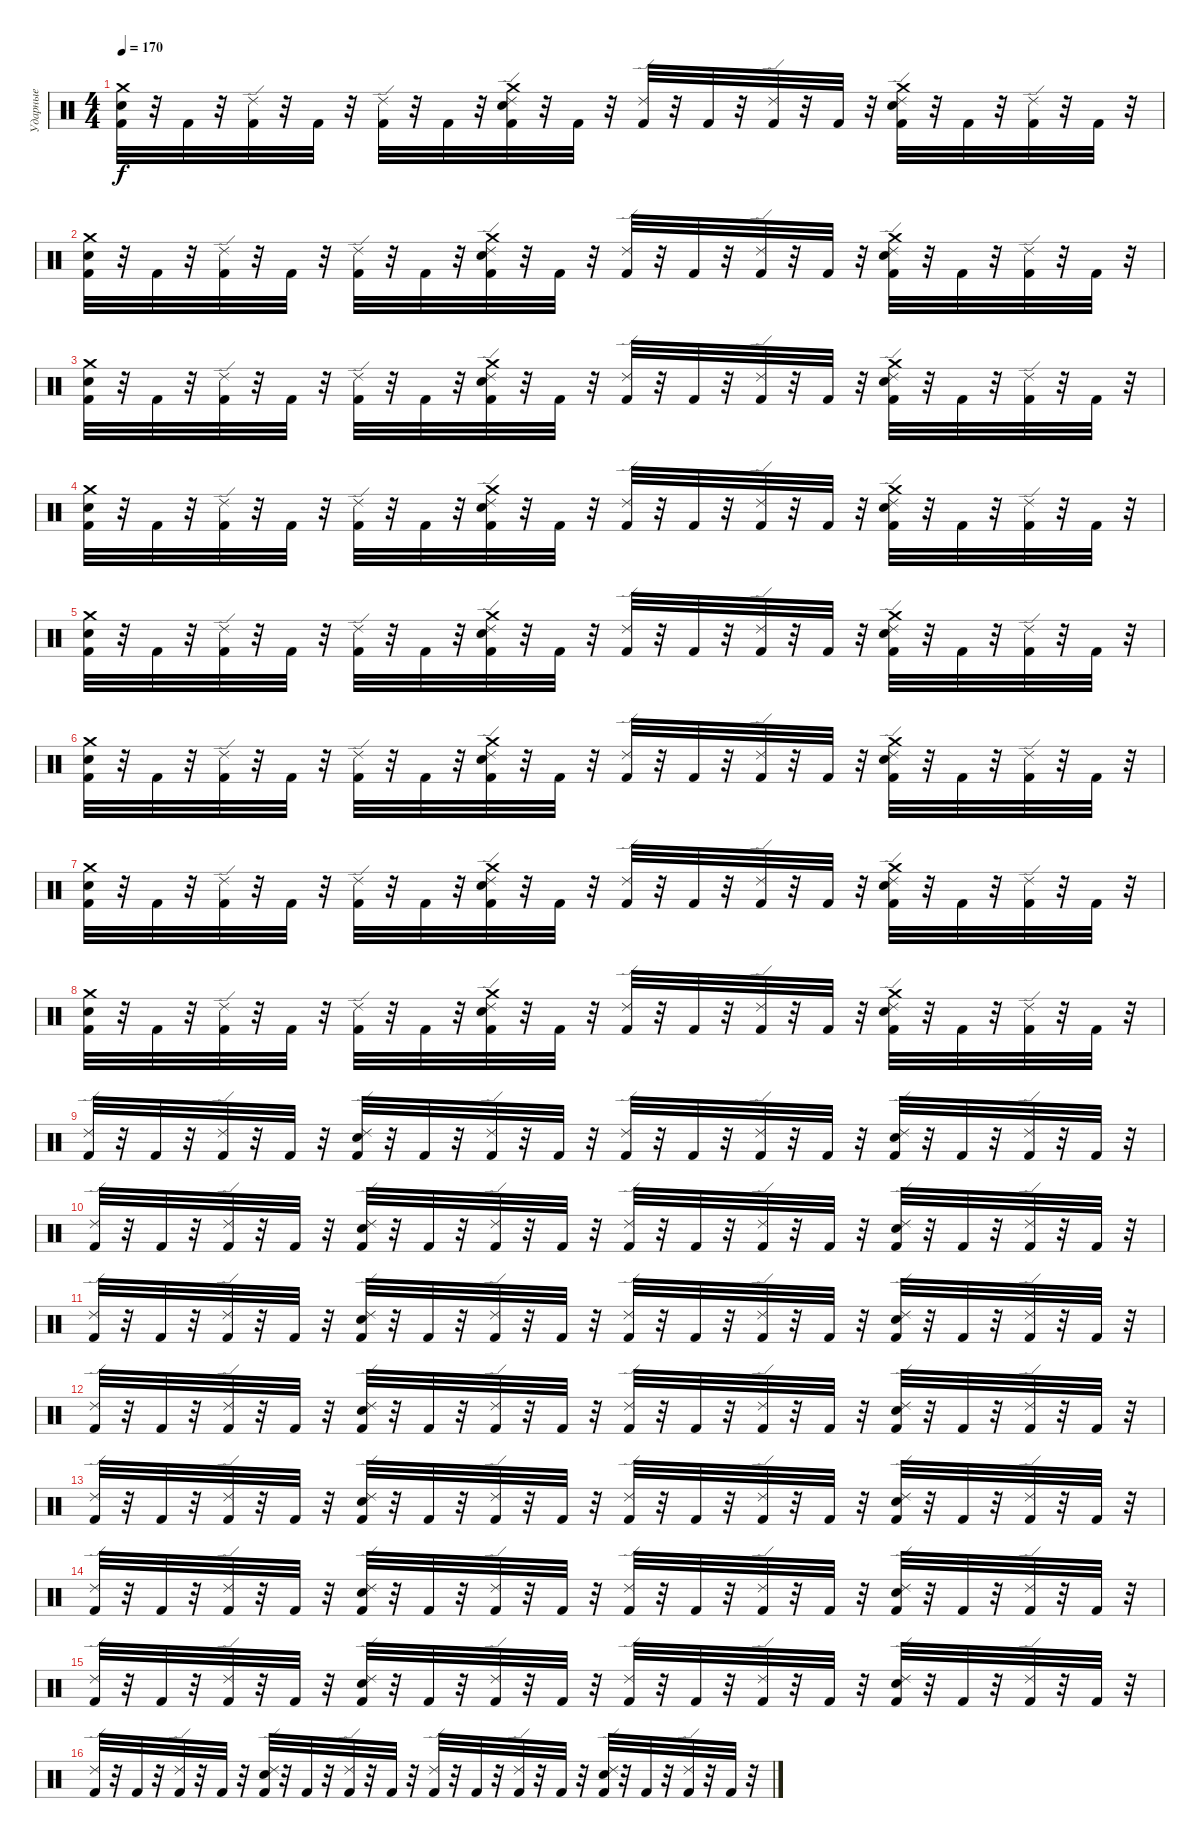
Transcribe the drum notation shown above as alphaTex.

\track ("Ударные" "Ударные") {instrument percussion}
\staff {score}
\articulation defaults
\ts (4 4)
\tempo 170
\clef neutral
\ks c
("Crash medium (hit)" "Electric Snare (hit)" "Kick (hit) 2").32{dy f} r.32 "Kick (hit) 2".32 r.32 ("Ride (edge) 2" "Kick (hit) 2").32 r.32 "Kick (hit) 2".32 r.32 ("Ride (edge) 2" "Kick (hit) 2").32 r.32 "Kick (hit) 2".32 r.32 ("Crash medium (hit)" "Ride (edge) 2" "Electric Snare (hit)" "Kick (hit) 2").32 r.32 "Kick (hit) 2".32 r.32 ("Ride (edge) 2" "Kick (hit) 2").32 r.32 "Kick (hit) 2".32 r.32 ("Ride (edge) 2" "Kick (hit) 2").32 r.32 "Kick (hit) 2".32 r.32 ("Crash medium (hit)" "Ride (edge) 2" "Electric Snare (hit)" "Kick (hit) 2").32 r.32 "Kick (hit) 2".32 r.32 ("Ride (edge) 2" "Kick (hit) 2").32 r.32 "Kick (hit) 2".32 r.32 |
("Crash medium (hit)" "Electric Snare (hit)" "Kick (hit) 2").32 r.32 "Kick (hit) 2".32 r.32 ("Ride (edge) 2" "Kick (hit) 2").32 r.32 "Kick (hit) 2".32 r.32 ("Ride (edge) 2" "Kick (hit) 2").32 r.32 "Kick (hit) 2".32 r.32 ("Crash medium (hit)" "Ride (edge) 2" "Electric Snare (hit)" "Kick (hit) 2").32 r.32 "Kick (hit) 2".32 r.32 ("Ride (edge) 2" "Kick (hit) 2").32 r.32 "Kick (hit) 2".32 r.32 ("Ride (edge) 2" "Kick (hit) 2").32 r.32 "Kick (hit) 2".32 r.32 ("Crash medium (hit)" "Ride (edge) 2" "Electric Snare (hit)" "Kick (hit) 2").32 r.32 "Kick (hit) 2".32 r.32 ("Ride (edge) 2" "Kick (hit) 2").32 r.32 "Kick (hit) 2".32 r.32 |
("Crash medium (hit)" "Electric Snare (hit)" "Kick (hit) 2").32 r.32 "Kick (hit) 2".32 r.32 ("Ride (edge) 2" "Kick (hit) 2").32 r.32 "Kick (hit) 2".32 r.32 ("Ride (edge) 2" "Kick (hit) 2").32 r.32 "Kick (hit) 2".32 r.32 ("Crash medium (hit)" "Ride (edge) 2" "Electric Snare (hit)" "Kick (hit) 2").32 r.32 "Kick (hit) 2".32 r.32 ("Ride (edge) 2" "Kick (hit) 2").32 r.32 "Kick (hit) 2".32 r.32 ("Ride (edge) 2" "Kick (hit) 2").32 r.32 "Kick (hit) 2".32 r.32 ("Crash medium (hit)" "Ride (edge) 2" "Electric Snare (hit)" "Kick (hit) 2").32 r.32 "Kick (hit) 2".32 r.32 ("Ride (edge) 2" "Kick (hit) 2").32 r.32 "Kick (hit) 2".32 r.32 |
("Crash medium (hit)" "Electric Snare (hit)" "Kick (hit) 2").32 r.32 "Kick (hit) 2".32 r.32 ("Ride (edge) 2" "Kick (hit) 2").32 r.32 "Kick (hit) 2".32 r.32 ("Ride (edge) 2" "Kick (hit) 2").32 r.32 "Kick (hit) 2".32 r.32 ("Crash medium (hit)" "Ride (edge) 2" "Electric Snare (hit)" "Kick (hit) 2").32 r.32 "Kick (hit) 2".32 r.32 ("Ride (edge) 2" "Kick (hit) 2").32 r.32 "Kick (hit) 2".32 r.32 ("Ride (edge) 2" "Kick (hit) 2").32 r.32 "Kick (hit) 2".32 r.32 ("Crash medium (hit)" "Ride (edge) 2" "Electric Snare (hit)" "Kick (hit) 2").32 r.32 "Kick (hit) 2".32 r.32 ("Ride (edge) 2" "Kick (hit) 2").32 r.32 "Kick (hit) 2".32 r.32 |
("Crash medium (hit)" "Electric Snare (hit)" "Kick (hit) 2").32 r.32 "Kick (hit) 2".32 r.32 ("Ride (edge) 2" "Kick (hit) 2").32 r.32 "Kick (hit) 2".32 r.32 ("Ride (edge) 2" "Kick (hit) 2").32 r.32 "Kick (hit) 2".32 r.32 ("Crash medium (hit)" "Ride (edge) 2" "Electric Snare (hit)" "Kick (hit) 2").32 r.32 "Kick (hit) 2".32 r.32 ("Ride (edge) 2" "Kick (hit) 2").32 r.32 "Kick (hit) 2".32 r.32 ("Ride (edge) 2" "Kick (hit) 2").32 r.32 "Kick (hit) 2".32 r.32 ("Crash medium (hit)" "Ride (edge) 2" "Electric Snare (hit)" "Kick (hit) 2").32 r.32 "Kick (hit) 2".32 r.32 ("Ride (edge) 2" "Kick (hit) 2").32 r.32 "Kick (hit) 2".32 r.32 |
("Crash medium (hit)" "Electric Snare (hit)" "Kick (hit) 2").32 r.32 "Kick (hit) 2".32 r.32 ("Ride (edge) 2" "Kick (hit) 2").32 r.32 "Kick (hit) 2".32 r.32 ("Ride (edge) 2" "Kick (hit) 2").32 r.32 "Kick (hit) 2".32 r.32 ("Crash medium (hit)" "Ride (edge) 2" "Electric Snare (hit)" "Kick (hit) 2").32 r.32 "Kick (hit) 2".32 r.32 ("Ride (edge) 2" "Kick (hit) 2").32 r.32 "Kick (hit) 2".32 r.32 ("Ride (edge) 2" "Kick (hit) 2").32 r.32 "Kick (hit) 2".32 r.32 ("Crash medium (hit)" "Ride (edge) 2" "Electric Snare (hit)" "Kick (hit) 2").32 r.32 "Kick (hit) 2".32 r.32 ("Ride (edge) 2" "Kick (hit) 2").32 r.32 "Kick (hit) 2".32 r.32 |
("Crash medium (hit)" "Electric Snare (hit)" "Kick (hit) 2").32 r.32 "Kick (hit) 2".32 r.32 ("Ride (edge) 2" "Kick (hit) 2").32 r.32 "Kick (hit) 2".32 r.32 ("Ride (edge) 2" "Kick (hit) 2").32 r.32 "Kick (hit) 2".32 r.32 ("Crash medium (hit)" "Ride (edge) 2" "Electric Snare (hit)" "Kick (hit) 2").32 r.32 "Kick (hit) 2".32 r.32 ("Ride (edge) 2" "Kick (hit) 2").32 r.32 "Kick (hit) 2".32 r.32 ("Ride (edge) 2" "Kick (hit) 2").32 r.32 "Kick (hit) 2".32 r.32 ("Crash medium (hit)" "Ride (edge) 2" "Electric Snare (hit)" "Kick (hit) 2").32 r.32 "Kick (hit) 2".32 r.32 ("Ride (edge) 2" "Kick (hit) 2").32 r.32 "Kick (hit) 2".32 r.32 |
("Crash medium (hit)" "Electric Snare (hit)" "Kick (hit) 2").32 r.32 "Kick (hit) 2".32 r.32 ("Ride (edge) 2" "Kick (hit) 2").32 r.32 "Kick (hit) 2".32 r.32 ("Ride (edge) 2" "Kick (hit) 2").32 r.32 "Kick (hit) 2".32 r.32 ("Crash medium (hit)" "Ride (edge) 2" "Electric Snare (hit)" "Kick (hit) 2").32 r.32 "Kick (hit) 2".32 r.32 ("Ride (edge) 2" "Kick (hit) 2").32 r.32 "Kick (hit) 2".32 r.32 ("Ride (edge) 2" "Kick (hit) 2").32 r.32 "Kick (hit) 2".32 r.32 ("Crash medium (hit)" "Ride (edge) 2" "Electric Snare (hit)" "Kick (hit) 2").32 r.32 "Kick (hit) 2".32 r.32 ("Ride (edge) 2" "Kick (hit) 2").32 r.32 "Kick (hit) 2".32 r.32 |
("Ride (edge) 2" "Kick (hit) 2").32 r.32 "Kick (hit) 2".32 r.32 ("Ride (edge) 2" "Kick (hit) 2").32 r.32 "Kick (hit) 2".32 r.32 ("Ride (edge) 2" "Electric Snare (hit)" "Kick (hit) 2").32 r.32 "Kick (hit) 2".32 r.32 ("Ride (edge) 2" "Kick (hit) 2").32 r.32 "Kick (hit) 2".32 r.32 ("Ride (edge) 2" "Kick (hit) 2").32 r.32 "Kick (hit) 2".32 r.32 ("Ride (edge) 2" "Kick (hit) 2").32 r.32 "Kick (hit) 2".32 r.32 ("Ride (edge) 2" "Electric Snare (hit)" "Kick (hit) 2").32 r.32 "Kick (hit) 2".32 r.32 ("Ride (edge) 2" "Kick (hit) 2").32 r.32 "Kick (hit) 2".32 r.32 |
("Ride (edge) 2" "Kick (hit) 2").32 r.32 "Kick (hit) 2".32 r.32 ("Ride (edge) 2" "Kick (hit) 2").32 r.32 "Kick (hit) 2".32 r.32 ("Ride (edge) 2" "Electric Snare (hit)" "Kick (hit) 2").32 r.32 "Kick (hit) 2".32 r.32 ("Ride (edge) 2" "Kick (hit) 2").32 r.32 "Kick (hit) 2".32 r.32 ("Ride (edge) 2" "Kick (hit) 2").32 r.32 "Kick (hit) 2".32 r.32 ("Ride (edge) 2" "Kick (hit) 2").32 r.32 "Kick (hit) 2".32 r.32 ("Ride (edge) 2" "Electric Snare (hit)" "Kick (hit) 2").32 r.32 "Kick (hit) 2".32 r.32 ("Ride (edge) 2" "Kick (hit) 2").32 r.32 "Kick (hit) 2".32 r.32 |
("Ride (edge) 2" "Kick (hit) 2").32 r.32 "Kick (hit) 2".32 r.32 ("Ride (edge) 2" "Kick (hit) 2").32 r.32 "Kick (hit) 2".32 r.32 ("Ride (edge) 2" "Electric Snare (hit)" "Kick (hit) 2").32 r.32 "Kick (hit) 2".32 r.32 ("Ride (edge) 2" "Kick (hit) 2").32 r.32 "Kick (hit) 2".32 r.32 ("Ride (edge) 2" "Kick (hit) 2").32 r.32 "Kick (hit) 2".32 r.32 ("Ride (edge) 2" "Kick (hit) 2").32 r.32 "Kick (hit) 2".32 r.32 ("Ride (edge) 2" "Electric Snare (hit)" "Kick (hit) 2").32 r.32 "Kick (hit) 2".32 r.32 ("Ride (edge) 2" "Kick (hit) 2").32 r.32 "Kick (hit) 2".32 r.32 |
("Ride (edge) 2" "Kick (hit) 2").32 r.32 "Kick (hit) 2".32 r.32 ("Ride (edge) 2" "Kick (hit) 2").32 r.32 "Kick (hit) 2".32 r.32 ("Ride (edge) 2" "Electric Snare (hit)" "Kick (hit) 2").32 r.32 "Kick (hit) 2".32 r.32 ("Ride (edge) 2" "Kick (hit) 2").32 r.32 "Kick (hit) 2".32 r.32 ("Ride (edge) 2" "Kick (hit) 2").32 r.32 "Kick (hit) 2".32 r.32 ("Ride (edge) 2" "Kick (hit) 2").32 r.32 "Kick (hit) 2".32 r.32 ("Ride (edge) 2" "Electric Snare (hit)" "Kick (hit) 2").32 r.32 "Kick (hit) 2".32 r.32 ("Ride (edge) 2" "Kick (hit) 2").32 r.32 "Kick (hit) 2".32 r.32 |
("Ride (edge) 2" "Kick (hit) 2").32 r.32 "Kick (hit) 2".32 r.32 ("Ride (edge) 2" "Kick (hit) 2").32 r.32 "Kick (hit) 2".32 r.32 ("Ride (edge) 2" "Electric Snare (hit)" "Kick (hit) 2").32 r.32 "Kick (hit) 2".32 r.32 ("Ride (edge) 2" "Kick (hit) 2").32 r.32 "Kick (hit) 2".32 r.32 ("Ride (edge) 2" "Kick (hit) 2").32 r.32 "Kick (hit) 2".32 r.32 ("Ride (edge) 2" "Kick (hit) 2").32 r.32 "Kick (hit) 2".32 r.32 ("Ride (edge) 2" "Electric Snare (hit)" "Kick (hit) 2").32 r.32 "Kick (hit) 2".32 r.32 ("Ride (edge) 2" "Kick (hit) 2").32 r.32 "Kick (hit) 2".32 r.32 |
("Ride (edge) 2" "Kick (hit) 2").32 r.32 "Kick (hit) 2".32 r.32 ("Ride (edge) 2" "Kick (hit) 2").32 r.32 "Kick (hit) 2".32 r.32 ("Ride (edge) 2" "Electric Snare (hit)" "Kick (hit) 2").32 r.32 "Kick (hit) 2".32 r.32 ("Ride (edge) 2" "Kick (hit) 2").32 r.32 "Kick (hit) 2".32 r.32 ("Ride (edge) 2" "Kick (hit) 2").32 r.32 "Kick (hit) 2".32 r.32 ("Ride (edge) 2" "Kick (hit) 2").32 r.32 "Kick (hit) 2".32 r.32 ("Ride (edge) 2" "Electric Snare (hit)" "Kick (hit) 2").32 r.32 "Kick (hit) 2".32 r.32 ("Ride (edge) 2" "Kick (hit) 2").32 r.32 "Kick (hit) 2".32 r.32 |
("Ride (edge) 2" "Kick (hit) 2").32 r.32 "Kick (hit) 2".32 r.32 ("Ride (edge) 2" "Kick (hit) 2").32 r.32 "Kick (hit) 2".32 r.32 ("Ride (edge) 2" "Electric Snare (hit)" "Kick (hit) 2").32 r.32 "Kick (hit) 2".32 r.32 ("Ride (edge) 2" "Kick (hit) 2").32 r.32 "Kick (hit) 2".32 r.32 ("Ride (edge) 2" "Kick (hit) 2").32 r.32 "Kick (hit) 2".32 r.32 ("Ride (edge) 2" "Kick (hit) 2").32 r.32 "Kick (hit) 2".32 r.32 ("Ride (edge) 2" "Electric Snare (hit)" "Kick (hit) 2").32 r.32 "Kick (hit) 2".32 r.32 ("Ride (edge) 2" "Kick (hit) 2").32 r.32 "Kick (hit) 2".32 r.32 |
("Ride (edge) 2" "Kick (hit) 2").32 r.32 "Kick (hit) 2".32 r.32 ("Ride (edge) 2" "Kick (hit) 2").32 r.32 "Kick (hit) 2".32 r.32 ("Ride (edge) 2" "Electric Snare (hit)" "Kick (hit) 2").32 r.32 "Kick (hit) 2".32 r.32 ("Ride (edge) 2" "Kick (hit) 2").32 r.32 "Kick (hit) 2".32 r.32 ("Ride (edge) 2" "Kick (hit) 2").32 r.32 "Kick (hit) 2".32 r.32 ("Ride (edge) 2" "Kick (hit) 2").32 r.32 "Kick (hit) 2".32 r.32 ("Ride (edge) 2" "Electric Snare (hit)" "Kick (hit) 2").32 r.32 "Kick (hit) 2".32 r.32 ("Ride (edge) 2" "Kick (hit) 2").32 r.32 "Kick (hit) 2".32 r.32
